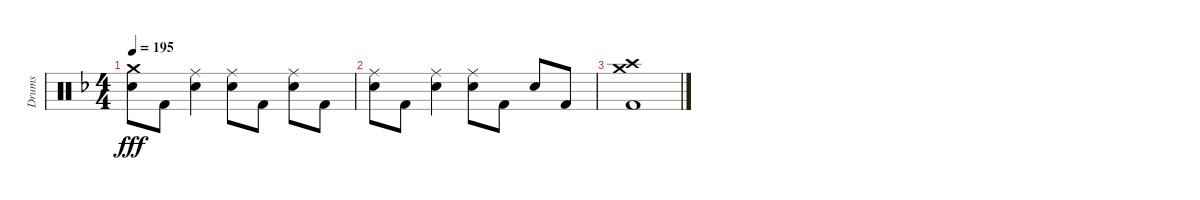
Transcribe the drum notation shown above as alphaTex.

\track ("Drums" "Drums") {instrument percussion}
\staff {score}
\articulation defaults
\ts (4 4)
\tempo 195
\clef neutral
\ks f
("Crash medium (hit)" "Electric Snare (hit)").8{dy fff} "Kick (hit) 2".8 ("Ride (middle)" "Electric Snare (hit)").4 ("Ride (middle)" "Electric Snare (hit)").8 "Kick (hit) 2".8 ("Ride (middle)" "Electric Snare (hit)").8 "Kick (hit) 2".8 |
("Ride (middle)" "Electric Snare (hit)").8 "Kick (hit) 2".8 ("Ride (middle)" "Electric Snare (hit)").4 ("Ride (middle)" "Electric Snare (hit)").8 "Kick (hit) 2".8 "Electric Snare (hit)".8 "Kick (hit) 2".8 |
("Crash high (hit)" "Crash medium (hit)" "Kick (hit) 2").1
